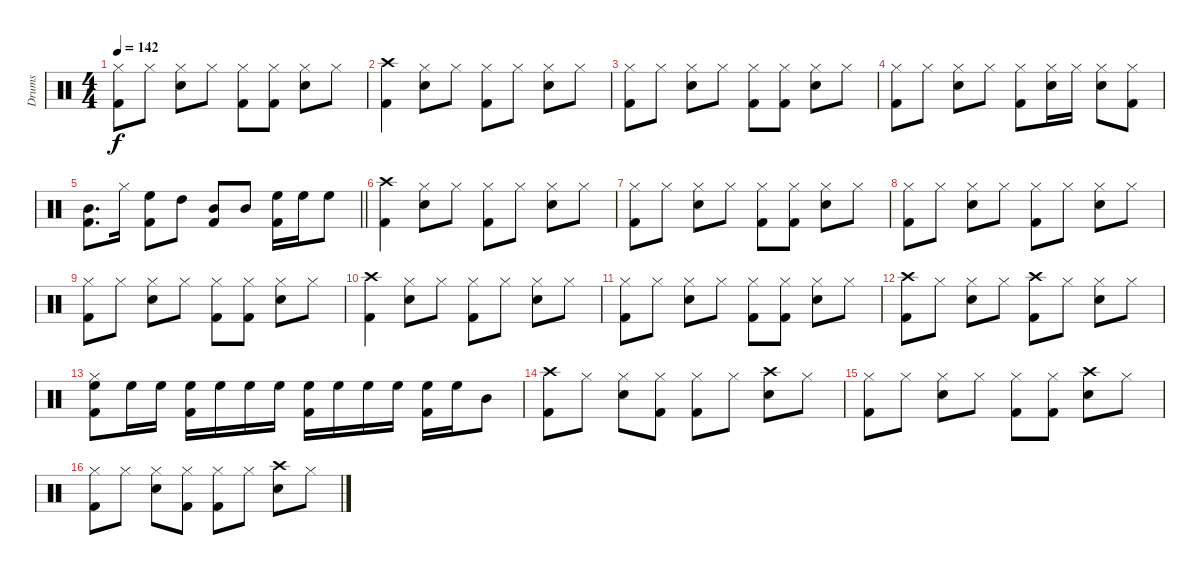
\track ("Drums" "Drums") {instrument percussion}
\staff {score}
\articulation defaults
\ts (4 4)
\tempo 142
\clef neutral
\ks c
("Hi-Hat (closed)" "Kick (hit) 2").8{dy f} "Hi-Hat (closed)".8 ("Hi-Hat (closed)" "Snare (hit) 2").8 "Hi-Hat (closed)".8 ("Hi-Hat (closed)" "Kick (hit) 2").8 ("Hi-Hat (closed)" "Kick (hit) 2").8 ("Hi-Hat (closed)" "Snare (hit) 2").8 "Hi-Hat (closed)".8 |
("Crash high (hit)" "Kick (hit) 2").4 ("Hi-Hat (closed)" "Snare (hit) 2").8 "Hi-Hat (closed)".8 ("Hi-Hat (closed)" "Kick (hit) 2").8 "Hi-Hat (closed)".8 ("Hi-Hat (closed)" "Snare (hit) 2").8 "Hi-Hat (closed)".8 |
("Hi-Hat (closed)" "Kick (hit) 2").8 "Hi-Hat (closed)".8 ("Hi-Hat (closed)" "Snare (hit) 2").8 "Hi-Hat (closed)".8 ("Hi-Hat (closed)" "Kick (hit) 2").8 ("Hi-Hat (closed)" "Kick (hit) 2").8 ("Hi-Hat (closed)" "Snare (hit) 2").8 "Hi-Hat (closed)".8 |
("Hi-Hat (closed)" "Kick (hit) 2").8 "Hi-Hat (closed)".8 ("Hi-Hat (closed)" "Snare (hit) 2").8 "Hi-Hat (closed)".8 ("Hi-Hat (closed)" "Kick (hit) 2").8 ("Hi-Hat (closed)" "Snare (hit) 2").16 "Hi-Hat (closed)".16 ("Hi-Hat (closed)" "Snare (hit) 2").8 ("Hi-Hat (closed)" "Kick (hit) 2").8 |
\barLineRight lightlight
("Mid Tom (hit)" "Kick (hit) 2").8{d} "Hi-Hat (closed)".16 ("High Floor Tom (hit)" "Kick (hit) 2").8 "High Tom (hit)".8 ("Mid Tom (hit)" "Kick (hit) 2").8 "Mid Tom (hit)".8 ("High Floor Tom (hit)" "Kick (hit) 2").16 "High Floor Tom (hit)".16 "High Floor Tom (hit)".8 |
("Crash high (hit)" "Kick (hit) 2").4 ("Hi-Hat (closed)" "Snare (hit) 2").8 "Hi-Hat (closed)".8 ("Hi-Hat (closed)" "Kick (hit) 2").8 "Hi-Hat (closed)".8 ("Hi-Hat (closed)" "Snare (hit) 2").8 "Hi-Hat (closed)".8 |
("Hi-Hat (closed)" "Kick (hit) 2").8 "Hi-Hat (closed)".8 ("Hi-Hat (closed)" "Snare (hit) 2").8 "Hi-Hat (closed)".8 ("Hi-Hat (closed)" "Kick (hit) 2").8 ("Hi-Hat (closed)" "Kick (hit) 2").8 ("Hi-Hat (closed)" "Snare (hit) 2").8 "Hi-Hat (closed)".8 |
("Hi-Hat (closed)" "Kick (hit) 2").8 "Hi-Hat (closed)".8 ("Hi-Hat (closed)" "Snare (hit) 2").8 "Hi-Hat (closed)".8 ("Hi-Hat (closed)" "Kick (hit) 2").8 "Hi-Hat (closed)".8 ("Hi-Hat (closed)" "Snare (hit) 2").8 "Hi-Hat (closed)".8 |
("Hi-Hat (closed)" "Kick (hit) 2").8 "Hi-Hat (closed)".8 ("Hi-Hat (closed)" "Snare (hit) 2").8 "Hi-Hat (closed)".8 ("Hi-Hat (closed)" "Kick (hit) 2").8 ("Hi-Hat (closed)" "Kick (hit) 2").8 ("Hi-Hat (closed)" "Snare (hit) 2").8 "Hi-Hat (closed)".8 |
("Crash high (hit)" "Kick (hit) 2").4 ("Hi-Hat (closed)" "Snare (hit) 2").8 "Hi-Hat (closed)".8 ("Hi-Hat (closed)" "Kick (hit) 2").8 "Hi-Hat (closed)".8 ("Hi-Hat (closed)" "Snare (hit) 2").8 "Hi-Hat (closed)".8 |
("Hi-Hat (closed)" "Kick (hit) 2").8 "Hi-Hat (closed)".8 ("Hi-Hat (closed)" "Snare (hit) 2").8 "Hi-Hat (closed)".8 ("Hi-Hat (closed)" "Kick (hit) 2").8 ("Hi-Hat (closed)" "Kick (hit) 2").8 ("Hi-Hat (closed)" "Snare (hit) 2").8 "Hi-Hat (closed)".8 |
("Crash high (hit)" "Kick (hit) 2").8 "Hi-Hat (closed)".8 ("Hi-Hat (closed)" "Snare (hit) 2").8 "Hi-Hat (closed)".8 ("Crash high (hit)" "Kick (hit) 2").8 "Hi-Hat (closed)".8 ("Hi-Hat (closed)" "Snare (hit) 2").8 "Hi-Hat (closed)".8 |
("Hi-Hat (closed)" "High Floor Tom (hit)" "Kick (hit) 2").8 "High Floor Tom (hit)".16 "High Floor Tom (hit)".16 ("High Floor Tom (hit)" "Kick (hit) 2").16 "High Floor Tom (hit)".16 "High Floor Tom (hit)".16 "High Floor Tom (hit)".16 ("High Floor Tom (hit)" "Kick (hit) 2").16 "High Floor Tom (hit)".16 "High Floor Tom (hit)".16 "High Floor Tom (hit)".16 ("High Floor Tom (hit)" "Kick (hit) 2").16 "High Floor Tom (hit)".16 "Mid Tom (hit)".8 |
("Crash high (hit)" "Kick (hit) 2").8 "Hi-Hat (closed)".8 ("Hi-Hat (closed)" "Snare (hit) 2").8 ("Hi-Hat (closed)" "Kick (hit) 2").8 ("Hi-Hat (closed)" "Kick (hit) 2").8 "Hi-Hat (closed)".8 ("Crash high (hit)" "Snare (hit) 2").8 "Hi-Hat (closed)".8 |
("Hi-Hat (closed)" "Kick (hit) 2").8 "Hi-Hat (closed)".8 ("Hi-Hat (closed)" "Snare (hit) 2").8 "Hi-Hat (closed)".8 ("Hi-Hat (closed)" "Kick (hit) 2").8 ("Hi-Hat (closed)" "Kick (hit) 2").8 ("Crash high (hit)" "Snare (hit) 2").8 "Hi-Hat (closed)".8 |
("Hi-Hat (closed)" "Kick (hit) 2").8 "Hi-Hat (closed)".8 ("Hi-Hat (closed)" "Snare (hit) 2").8 ("Hi-Hat (closed)" "Kick (hit) 2").8 ("Hi-Hat (closed)" "Kick (hit) 2").8 "Hi-Hat (closed)".8 ("Crash high (hit)" "Snare (hit) 2").8 "Hi-Hat (closed)".8
